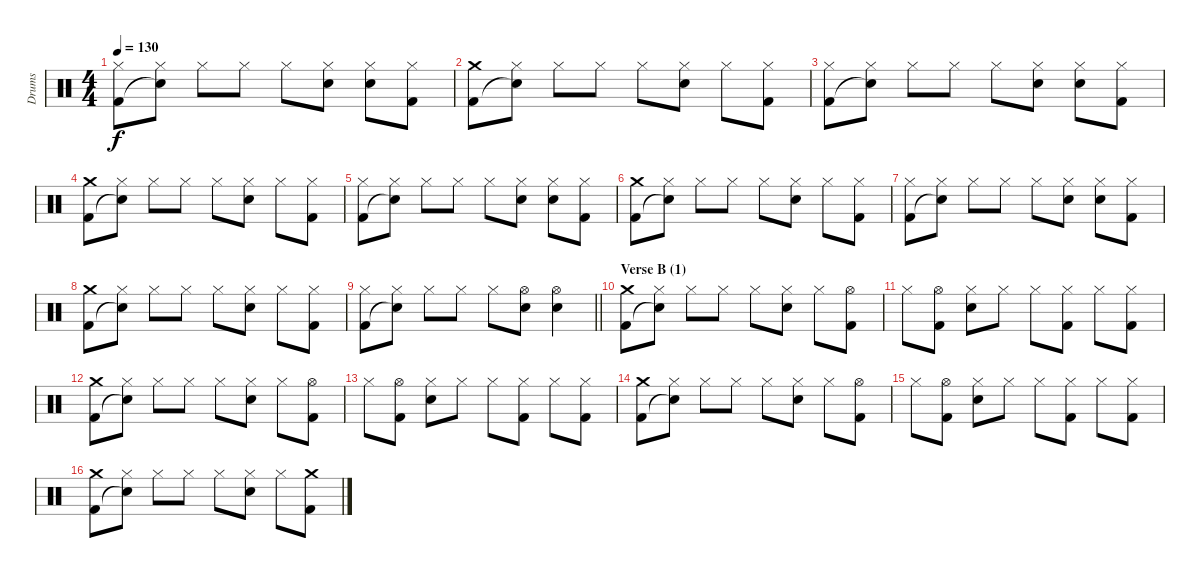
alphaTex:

\track ("Drums" "Drums") {instrument percussion}
\staff {score}
\articulation defaults
\ts (4 4)
\tempo 130
\clef neutral
\ks c
("Hi-Hat (closed)" "Kick (hit) 2").8{dy f} ("Hi-Hat (closed)" "Snare (hit)"{t}).8 "Hi-Hat (closed)".8 "Hi-Hat (closed)".8 "Hi-Hat (closed)".8 ("Hi-Hat (closed)" "Electric Snare (hit)").8 ("Hi-Hat (closed)" "Electric Snare (hit)").8 ("Hi-Hat (closed)" "Kick (hit) 2").8 |
("Crash medium (hit)" "Kick (hit) 2").8 ("Hi-Hat (closed)" "Snare (hit)"{t}).8 "Hi-Hat (closed)".8 "Hi-Hat (closed)".8 "Hi-Hat (closed)".8 ("Hi-Hat (closed)" "Electric Snare (hit)").8 "Hi-Hat (closed)".8 ("Hi-Hat (closed)" "Kick (hit) 2").8 |
("Hi-Hat (closed)" "Kick (hit) 2").8 ("Hi-Hat (closed)" "Snare (hit)"{t}).8 "Hi-Hat (closed)".8 "Hi-Hat (closed)".8 "Hi-Hat (closed)".8 ("Hi-Hat (closed)" "Electric Snare (hit)").8 ("Hi-Hat (closed)" "Electric Snare (hit)").8 ("Hi-Hat (closed)" "Kick (hit) 2").8 |
("Crash medium (hit)" "Kick (hit) 2").8 ("Hi-Hat (closed)" "Snare (hit)"{t}).8 "Hi-Hat (closed)".8 "Hi-Hat (closed)".8 "Hi-Hat (closed)".8 ("Hi-Hat (closed)" "Electric Snare (hit)").8 "Hi-Hat (closed)".8 ("Hi-Hat (closed)" "Kick (hit) 2").8 |
("Hi-Hat (closed)" "Kick (hit) 2").8 ("Hi-Hat (closed)" "Snare (hit)"{t}).8 "Hi-Hat (closed)".8 "Hi-Hat (closed)".8 "Hi-Hat (closed)".8 ("Hi-Hat (closed)" "Electric Snare (hit)").8 ("Hi-Hat (closed)" "Electric Snare (hit)").8 ("Hi-Hat (closed)" "Kick (hit) 2").8 |
("Crash medium (hit)" "Kick (hit) 2").8 ("Hi-Hat (closed)" "Snare (hit)"{t}).8 "Hi-Hat (closed)".8 "Hi-Hat (closed)".8 "Hi-Hat (closed)".8 ("Hi-Hat (closed)" "Electric Snare (hit)").8 "Hi-Hat (closed)".8 ("Hi-Hat (closed)" "Kick (hit) 2").8 |
("Hi-Hat (closed)" "Kick (hit) 2").8 ("Hi-Hat (closed)" "Snare (hit)"{t}).8 "Hi-Hat (closed)".8 "Hi-Hat (closed)".8 "Hi-Hat (closed)".8 ("Hi-Hat (closed)" "Electric Snare (hit)").8 ("Hi-Hat (closed)" "Electric Snare (hit)").8 ("Hi-Hat (closed)" "Kick (hit) 2").8 |
("Crash medium (hit)" "Kick (hit) 2").8 ("Hi-Hat (closed)" "Snare (hit)"{t}).8 "Hi-Hat (closed)".8 "Hi-Hat (closed)".8 "Hi-Hat (closed)".8 ("Hi-Hat (closed)" "Electric Snare (hit)").8 "Hi-Hat (closed)".8 ("Hi-Hat (closed)" "Kick (hit) 2").8 |
\barLineRight lightlight
("Hi-Hat (closed)" "Kick (hit) 2").8 ("Hi-Hat (closed)" "Snare (hit)"{t}).8 "Hi-Hat (closed)".8 "Hi-Hat (closed)".8 "Hi-Hat (closed)".8 ("Hi-Hat (open)" "Electric Snare (hit)").8 ("Hi-Hat (open)" "Electric Snare (hit)").4 |
\section ("" "Verse B (1)")
("Crash medium (hit)" "Kick (hit) 2").8 ("Hi-Hat (closed)" "Snare (hit)"{t}).8 "Hi-Hat (closed)".8 "Hi-Hat (closed)".8 "Hi-Hat (closed)".8 ("Hi-Hat (closed)" "Electric Snare (hit)").8 "Hi-Hat (closed)".8 ("Hi-Hat (open)" "Kick (hit) 2").8 |
"Hi-Hat (closed)".8 ("Hi-Hat (open)" "Kick (hit) 2").8 ("Hi-Hat (closed)" "Electric Snare (hit)").8 "Hi-Hat (closed)".8 "Hi-Hat (closed)".8 ("Hi-Hat (closed)" "Kick (hit) 2").8 "Hi-Hat (closed)".8 ("Hi-Hat (closed)" "Kick (hit) 2").8 |
("Crash medium (hit)" "Kick (hit) 2").8 ("Hi-Hat (closed)" "Snare (hit)"{t}).8 "Hi-Hat (closed)".8 "Hi-Hat (closed)".8 "Hi-Hat (closed)".8 ("Hi-Hat (closed)" "Electric Snare (hit)").8 "Hi-Hat (closed)".8 ("Hi-Hat (open)" "Kick (hit) 2").8 |
"Hi-Hat (closed)".8 ("Hi-Hat (open)" "Kick (hit) 2").8 ("Hi-Hat (closed)" "Electric Snare (hit)").8 "Hi-Hat (closed)".8 "Hi-Hat (closed)".8 ("Hi-Hat (closed)" "Kick (hit) 2").8 "Hi-Hat (closed)".8 ("Hi-Hat (closed)" "Kick (hit) 2").8 |
("Crash medium (hit)" "Kick (hit) 2").8 ("Hi-Hat (closed)" "Snare (hit)"{t}).8 "Hi-Hat (closed)".8 "Hi-Hat (closed)".8 "Hi-Hat (closed)".8 ("Hi-Hat (closed)" "Electric Snare (hit)").8 "Hi-Hat (closed)".8 ("Hi-Hat (open)" "Kick (hit) 2").8 |
"Hi-Hat (closed)".8 ("Hi-Hat (open)" "Kick (hit) 2").8 ("Hi-Hat (closed)" "Electric Snare (hit)").8 "Hi-Hat (closed)".8 "Hi-Hat (closed)".8 ("Hi-Hat (closed)" "Kick (hit) 2").8 "Hi-Hat (closed)".8 ("Hi-Hat (closed)" "Kick (hit) 2").8 |
("Crash medium (hit)" "Kick (hit) 2").8 ("Hi-Hat (closed)" "Snare (hit)"{t}).8 "Hi-Hat (closed)".8 "Hi-Hat (closed)".8 "Hi-Hat (closed)".8 ("Hi-Hat (closed)" "Electric Snare (hit)").8 "Hi-Hat (closed)".8 ("Crash medium (hit)" "Kick (hit) 2").8
